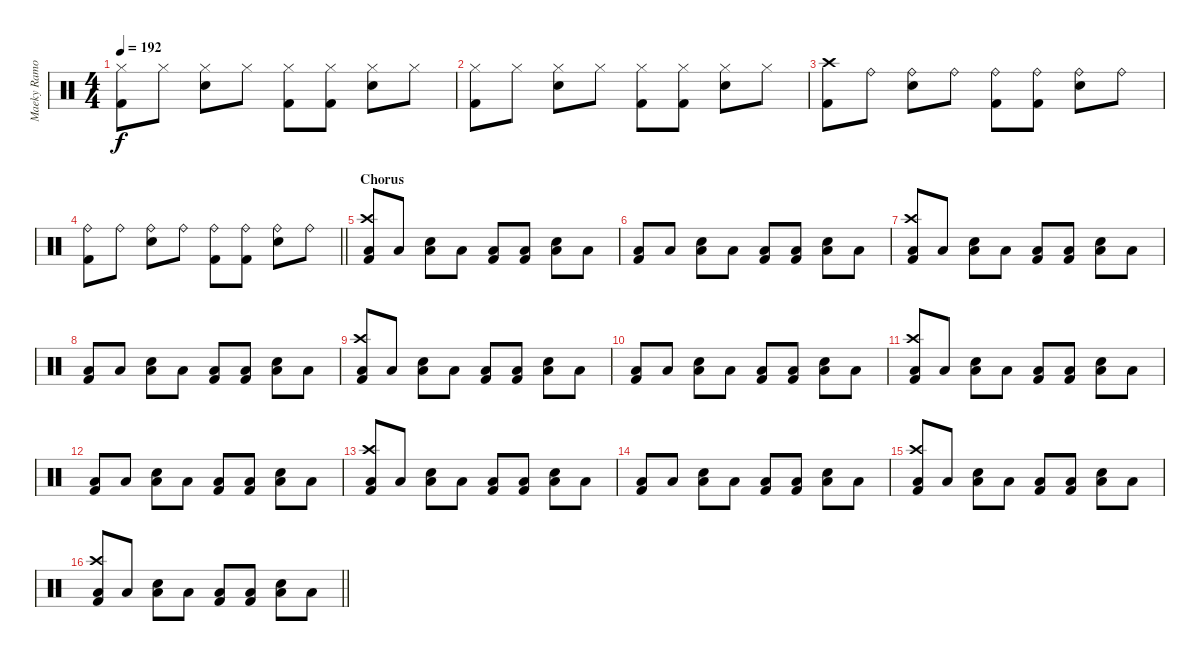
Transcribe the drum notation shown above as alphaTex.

\track ("Maeky Ramone" "Maeky Ramo") {instrument percussion}
\staff {score}
\articulation defaults
\ts (4 4)
\tempo 192
\clef neutral
\ks c
("Hi-Hat (closed)" "Kick (hit) 2").8{dy f} "Hi-Hat (closed)".8 ("Hi-Hat (closed)" "Snare (hit) 2").8 "Hi-Hat (closed)".8 ("Hi-Hat (closed)" "Kick (hit) 2").8 ("Hi-Hat (closed)" "Kick (hit) 2").8 ("Hi-Hat (closed)" "Snare (hit) 2").8 "Hi-Hat (closed)".8 |
("Hi-Hat (closed)" "Kick (hit) 2").8 "Hi-Hat (closed)".8 ("Hi-Hat (closed)" "Snare (hit) 2").8 "Hi-Hat (closed)".8 ("Hi-Hat (closed)" "Kick (hit) 2").8 ("Hi-Hat (closed)" "Kick (hit) 2").8 ("Hi-Hat (closed)" "Snare (hit) 2").8 "Hi-Hat (closed)".8 |
("Crash high (hit)" "Kick (hit) 2").8 "Ride (bell)".8 ("Ride (bell)" "Snare (hit) 2").8 "Ride (bell)".8 ("Ride (bell)" "Kick (hit) 2").8 ("Ride (bell)" "Kick (hit) 2").8 ("Ride (bell)" "Snare (hit) 2").8 "Ride (bell)".8 |
\barLineRight lightlight
("Ride (bell)" "Kick (hit) 2").8 "Ride (bell)".8 ("Ride (bell)" "Snare (hit) 2").8 "Ride (bell)".8 ("Ride (bell)" "Kick (hit) 2").8 ("Ride (bell)" "Kick (hit) 2").8 ("Ride (bell)" "Snare (hit) 2").8 "Ride (bell)".8 |
\section ("" "Chorus")
("Crash high (hit)" "Kick (hit) 2" "Low Floor Tom (hit)").8 "Low Floor Tom (hit)".8 ("Snare (hit) 2" "Low Floor Tom (hit)").8 "Low Floor Tom (hit)".8 ("Kick (hit) 2" "Low Floor Tom (hit)").8 ("Kick (hit) 2" "Low Floor Tom (hit)").8 ("Snare (hit) 2" "Low Floor Tom (hit)").8 "Low Floor Tom (hit)".8 |
("Kick (hit) 2" "Low Floor Tom (hit)").8 "Low Floor Tom (hit)".8 ("Snare (hit) 2" "Low Floor Tom (hit)").8 "Low Floor Tom (hit)".8 ("Kick (hit) 2" "Low Floor Tom (hit)").8 ("Kick (hit) 2" "Low Floor Tom (hit)").8 ("Snare (hit) 2" "Low Floor Tom (hit)").8 "Low Floor Tom (hit)".8 |
("Crash high (hit)" "Kick (hit) 2" "Low Floor Tom (hit)").8 "Low Floor Tom (hit)".8 ("Snare (hit) 2" "Low Floor Tom (hit)").8 "Low Floor Tom (hit)".8 ("Kick (hit) 2" "Low Floor Tom (hit)").8 ("Kick (hit) 2" "Low Floor Tom (hit)").8 ("Snare (hit) 2" "Low Floor Tom (hit)").8 "Low Floor Tom (hit)".8 |
("Kick (hit) 2" "Low Floor Tom (hit)").8 "Low Floor Tom (hit)".8 ("Snare (hit) 2" "Low Floor Tom (hit)").8 "Low Floor Tom (hit)".8 ("Kick (hit) 2" "Low Floor Tom (hit)").8 ("Kick (hit) 2" "Low Floor Tom (hit)").8 ("Snare (hit) 2" "Low Floor Tom (hit)").8 "Low Floor Tom (hit)".8 |
("Crash high (hit)" "Kick (hit) 2" "Low Floor Tom (hit)").8 "Low Floor Tom (hit)".8 ("Snare (hit) 2" "Low Floor Tom (hit)").8 "Low Floor Tom (hit)".8 ("Kick (hit) 2" "Low Floor Tom (hit)").8 ("Kick (hit) 2" "Low Floor Tom (hit)").8 ("Snare (hit) 2" "Low Floor Tom (hit)").8 "Low Floor Tom (hit)".8 |
("Kick (hit) 2" "Low Floor Tom (hit)").8 "Low Floor Tom (hit)".8 ("Snare (hit) 2" "Low Floor Tom (hit)").8 "Low Floor Tom (hit)".8 ("Kick (hit) 2" "Low Floor Tom (hit)").8 ("Kick (hit) 2" "Low Floor Tom (hit)").8 ("Snare (hit) 2" "Low Floor Tom (hit)").8 "Low Floor Tom (hit)".8 |
("Crash high (hit)" "Kick (hit) 2" "Low Floor Tom (hit)").8 "Low Floor Tom (hit)".8 ("Snare (hit) 2" "Low Floor Tom (hit)").8 "Low Floor Tom (hit)".8 ("Kick (hit) 2" "Low Floor Tom (hit)").8 ("Kick (hit) 2" "Low Floor Tom (hit)").8 ("Snare (hit) 2" "Low Floor Tom (hit)").8 "Low Floor Tom (hit)".8 |
("Kick (hit) 2" "Low Floor Tom (hit)").8 "Low Floor Tom (hit)".8 ("Snare (hit) 2" "Low Floor Tom (hit)").8 "Low Floor Tom (hit)".8 ("Kick (hit) 2" "Low Floor Tom (hit)").8 ("Kick (hit) 2" "Low Floor Tom (hit)").8 ("Snare (hit) 2" "Low Floor Tom (hit)").8 "Low Floor Tom (hit)".8 |
("Crash high (hit)" "Kick (hit) 2" "Low Floor Tom (hit)").8 "Low Floor Tom (hit)".8 ("Snare (hit) 2" "Low Floor Tom (hit)").8 "Low Floor Tom (hit)".8 ("Kick (hit) 2" "Low Floor Tom (hit)").8 ("Kick (hit) 2" "Low Floor Tom (hit)").8 ("Snare (hit) 2" "Low Floor Tom (hit)").8 "Low Floor Tom (hit)".8 |
("Kick (hit) 2" "Low Floor Tom (hit)").8 "Low Floor Tom (hit)".8 ("Snare (hit) 2" "Low Floor Tom (hit)").8 "Low Floor Tom (hit)".8 ("Kick (hit) 2" "Low Floor Tom (hit)").8 ("Kick (hit) 2" "Low Floor Tom (hit)").8 ("Snare (hit) 2" "Low Floor Tom (hit)").8 "Low Floor Tom (hit)".8 |
("Crash high (hit)" "Kick (hit) 2" "Low Floor Tom (hit)").8 "Low Floor Tom (hit)".8 ("Snare (hit) 2" "Low Floor Tom (hit)").8 "Low Floor Tom (hit)".8 ("Kick (hit) 2" "Low Floor Tom (hit)").8 ("Kick (hit) 2" "Low Floor Tom (hit)").8 ("Snare (hit) 2" "Low Floor Tom (hit)").8 "Low Floor Tom (hit)".8 |
\barLineRight lightlight
("Crash high (hit)" "Kick (hit) 2" "Low Floor Tom (hit)").8 "Low Floor Tom (hit)".8 ("Snare (hit) 2" "Low Floor Tom (hit)").8 "Low Floor Tom (hit)".8 ("Kick (hit) 2" "Low Floor Tom (hit)").8 ("Kick (hit) 2" "Low Floor Tom (hit)").8 ("Snare (hit) 2" "Low Floor Tom (hit)").8 "Low Floor Tom (hit)".8
